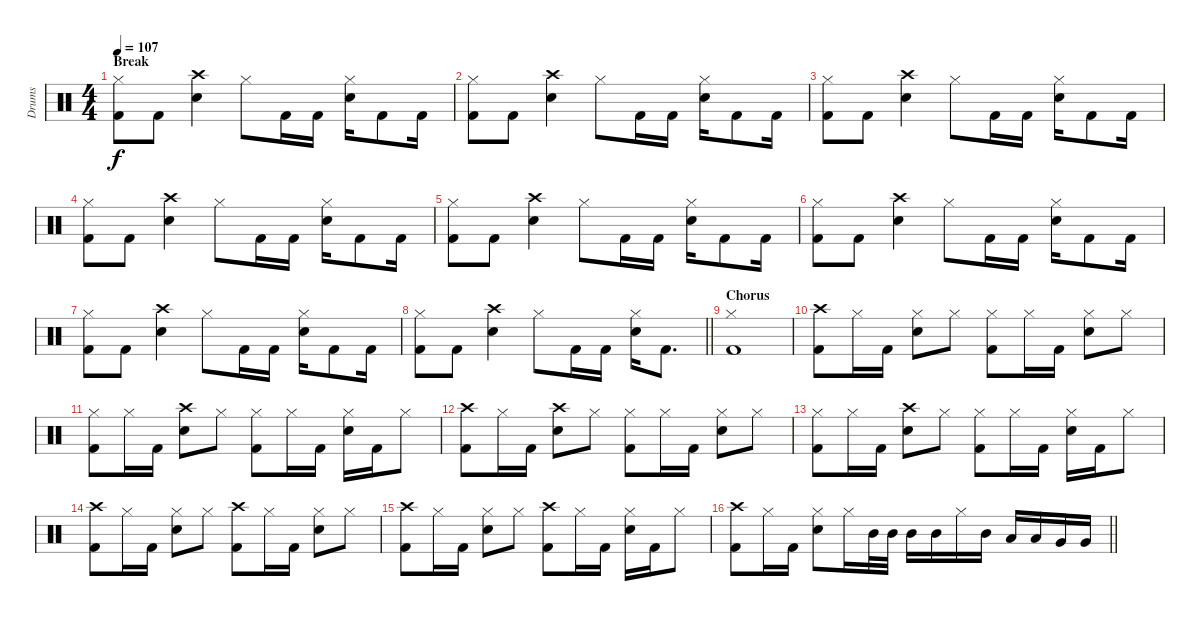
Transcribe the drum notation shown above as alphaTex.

\track ("Drums " "Drums ") {instrument percussion}
\staff {score}
\articulation defaults
\ts (4 4)
\section ("" "Break")
\tempo 107
\clef neutral
\ks c
("Hi-Hat (closed)" "Kick (hit) 2").8{dy f} "Kick (hit) 2".8 ("Crash high (hit)" "Electric Snare (hit)").4 "Hi-Hat (closed)".8 "Kick (hit) 2".16 "Kick (hit) 2".16 ("Hi-Hat (closed)" "Electric Snare (hit)").16 "Kick (hit) 2".8 "Kick (hit) 2".16 |
("Hi-Hat (closed)" "Kick (hit) 2").8 "Kick (hit) 2".8 ("Crash high (hit)" "Electric Snare (hit)").4 "Hi-Hat (closed)".8 "Kick (hit) 2".16 "Kick (hit) 2".16 ("Hi-Hat (closed)" "Electric Snare (hit)").16 "Kick (hit) 2".8 "Kick (hit) 2".16 |
("Hi-Hat (closed)" "Kick (hit) 2").8 "Kick (hit) 2".8 ("Crash high (hit)" "Electric Snare (hit)").4 "Hi-Hat (closed)".8 "Kick (hit) 2".16 "Kick (hit) 2".16 ("Hi-Hat (closed)" "Electric Snare (hit)").16 "Kick (hit) 2".8 "Kick (hit) 2".16 |
("Hi-Hat (closed)" "Kick (hit) 2").8 "Kick (hit) 2".8 ("Crash high (hit)" "Electric Snare (hit)").4 "Hi-Hat (closed)".8 "Kick (hit) 2".16 "Kick (hit) 2".16 ("Hi-Hat (closed)" "Electric Snare (hit)").16 "Kick (hit) 2".8 "Kick (hit) 2".16 |
("Hi-Hat (closed)" "Kick (hit) 2").8 "Kick (hit) 2".8 ("Crash high (hit)" "Electric Snare (hit)").4 "Hi-Hat (closed)".8 "Kick (hit) 2".16 "Kick (hit) 2".16 ("Hi-Hat (closed)" "Electric Snare (hit)").16 "Kick (hit) 2".8 "Kick (hit) 2".16 |
("Hi-Hat (closed)" "Kick (hit) 2").8 "Kick (hit) 2".8 ("Crash high (hit)" "Electric Snare (hit)").4 "Hi-Hat (closed)".8 "Kick (hit) 2".16 "Kick (hit) 2".16 ("Hi-Hat (closed)" "Electric Snare (hit)").16 "Kick (hit) 2".8 "Kick (hit) 2".16 |
("Hi-Hat (closed)" "Kick (hit) 2").8 "Kick (hit) 2".8 ("Crash high (hit)" "Electric Snare (hit)").4 "Hi-Hat (closed)".8 "Kick (hit) 2".16 "Kick (hit) 2".16 ("Hi-Hat (closed)" "Electric Snare (hit)").16 "Kick (hit) 2".8 "Kick (hit) 2".16 |
\barLineRight lightlight
("Hi-Hat (closed)" "Kick (hit) 2").8 "Kick (hit) 2".8 ("Crash high (hit)" "Electric Snare (hit)").4 "Hi-Hat (closed)".8 "Kick (hit) 2".16 "Kick (hit) 2".16 ("Hi-Hat (closed)" "Electric Snare (hit)").16 "Kick (hit) 2".8{d} |
\section ("" "Chorus")
("Hi-Hat (closed)" "Kick (hit) 2").1 |
("Crash high (hit)" "Kick (hit) 2").8 "Hi-Hat (closed)".16 "Kick (hit) 2".16 ("Hi-Hat (closed)" "Electric Snare (hit)").8 "Hi-Hat (closed)".8 ("Hi-Hat (closed)" "Kick (hit) 2").8 "Hi-Hat (closed)".16 "Kick (hit) 2".16 ("Hi-Hat (closed)" "Electric Snare (hit)").8 "Hi-Hat (closed)".8 |
("Hi-Hat (closed)" "Kick (hit) 2").8 "Hi-Hat (closed)".16 "Kick (hit) 2".16 ("Crash high (hit)" "Electric Snare (hit)").8 "Hi-Hat (closed)".8 ("Hi-Hat (closed)" "Kick (hit) 2").8 "Hi-Hat (closed)".16 "Kick (hit) 2".16 ("Hi-Hat (closed)" "Electric Snare (hit)").16 "Kick (hit) 2".16 "Hi-Hat (closed)".8 |
("Crash high (hit)" "Kick (hit) 2").8 "Hi-Hat (closed)".16 "Kick (hit) 2".16 ("Crash high (hit)" "Electric Snare (hit)").8 "Hi-Hat (closed)".8 ("Hi-Hat (closed)" "Kick (hit) 2").8 "Hi-Hat (closed)".16 "Kick (hit) 2".16 ("Hi-Hat (closed)" "Electric Snare (hit)").8 "Hi-Hat (closed)".8 |
("Hi-Hat (closed)" "Kick (hit) 2").8 "Hi-Hat (closed)".16 "Kick (hit) 2".16 ("Crash high (hit)" "Electric Snare (hit)").8 "Hi-Hat (closed)".8 ("Hi-Hat (closed)" "Kick (hit) 2").8 "Hi-Hat (closed)".16 "Kick (hit) 2".16 ("Hi-Hat (closed)" "Electric Snare (hit)").16 "Kick (hit) 2".16 "Hi-Hat (closed)".8 |
("Crash high (hit)" "Kick (hit) 2").8 "Hi-Hat (closed)".16 "Kick (hit) 2".16 ("Hi-Hat (closed)" "Electric Snare (hit)").8 "Hi-Hat (closed)".8 ("Crash high (hit)" "Kick (hit) 2").8 "Hi-Hat (closed)".16 "Kick (hit) 2".16 ("Hi-Hat (closed)" "Electric Snare (hit)").8 "Hi-Hat (closed)".8 |
("Crash high (hit)" "Kick (hit) 2").8 "Hi-Hat (closed)".16 "Kick (hit) 2".16 ("Hi-Hat (closed)" "Electric Snare (hit)").8 "Hi-Hat (closed)".8 ("Crash high (hit)" "Kick (hit) 2").8 "Hi-Hat (closed)".16 "Kick (hit) 2".16 ("Hi-Hat (closed)" "Electric Snare (hit)").16 "Kick (hit) 2".16 "Hi-Hat (closed)".8 |
\barLineRight lightlight
("Crash high (hit)" "Kick (hit) 2").8 "Hi-Hat (closed)".16 "Kick (hit) 2".16 ("Hi-Hat (closed)" "Electric Snare (hit)").8 "Hi-Hat (closed)".16 "Mid Tom (hit)".32 "Mid Tom (hit)".32 "Mid Tom (hit)".16 "Mid Tom (hit)".16 "Hi-Hat (closed)".16 "Mid Tom (hit)".16 "Low Tom (hit)".16 "Low Tom (hit)".16 "Very Low Tom (hit)".16 "Very Low Tom (hit)".16
